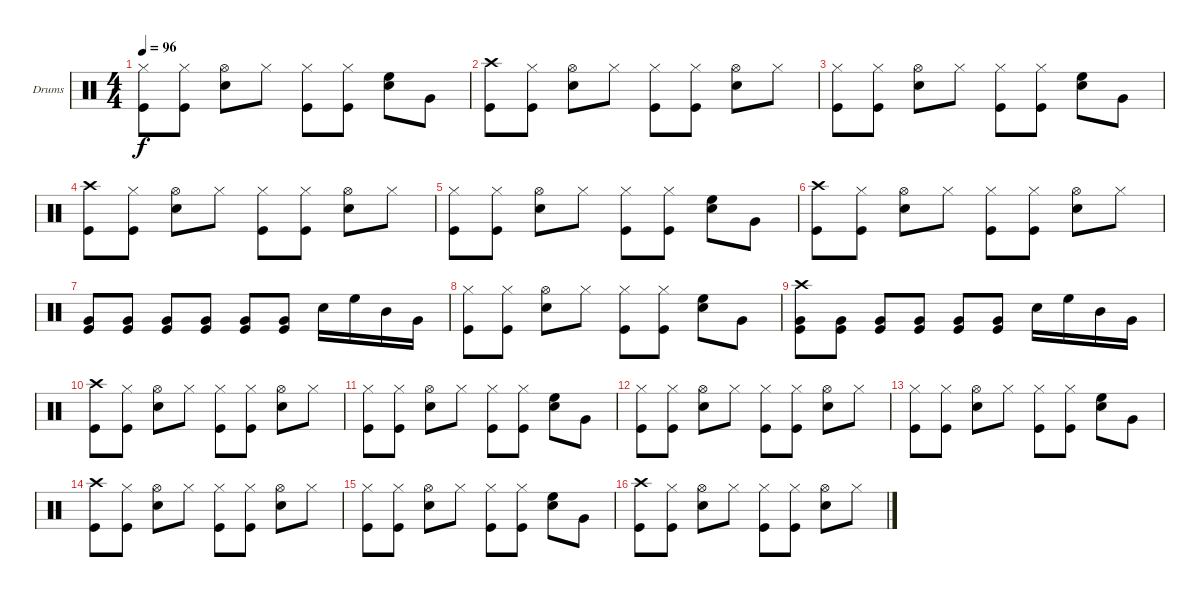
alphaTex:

\bracketExtendMode groupsimilarinstruments
\firstSystemTrackNameOrientation horizontal
\otherSystemsTrackNameOrientation horizontal
\track ("Drumkit" "Drums") {instrument percussion}
\staff {score}
\articulation defaults
\ts (4 4)
\tempo 96
\clef neutral
\ks c
("Hi-Hat (closed)" "Kick (hit)").8{dy f} ("Hi-Hat (closed)" "Kick (hit)").8 ("Hi-Hat (open)" "Snare (hit) 2").8 "Hi-Hat (closed)".8 ("Hi-Hat (closed)" "Kick (hit)").8 ("Hi-Hat (closed)" "Kick (hit)").8 ("Snare (hit) 2" "High Floor Tom (hit)").8 "Very Low Tom (hit)".8 |
("Crash high (hit)" "Kick (hit)").8 ("Hi-Hat (closed)" "Kick (hit)").8 ("Hi-Hat (open)" "Snare (hit) 2").8 "Hi-Hat (closed)".8 ("Hi-Hat (closed)" "Kick (hit)").8 ("Hi-Hat (closed)" "Kick (hit)").8 ("Hi-Hat (open)" "Snare (hit) 2").8 "Hi-Hat (closed)".8 |
("Hi-Hat (closed)" "Kick (hit)").8 ("Hi-Hat (closed)" "Kick (hit)").8 ("Hi-Hat (open)" "Snare (hit) 2").8 "Hi-Hat (closed)".8 ("Hi-Hat (closed)" "Kick (hit)").8 ("Hi-Hat (closed)" "Kick (hit)").8 ("Snare (hit) 2" "High Floor Tom (hit)").8 "Very Low Tom (hit)".8 |
("Crash high (hit)" "Kick (hit)").8 ("Hi-Hat (closed)" "Kick (hit)").8 ("Hi-Hat (open)" "Snare (hit) 2").8 "Hi-Hat (closed)".8 ("Hi-Hat (closed)" "Kick (hit)").8 ("Hi-Hat (closed)" "Kick (hit)").8 ("Hi-Hat (open)" "Snare (hit) 2").8 "Hi-Hat (closed)".8 |
("Hi-Hat (closed)" "Kick (hit)").8 ("Hi-Hat (closed)" "Kick (hit)").8 ("Hi-Hat (open)" "Snare (hit) 2").8 "Hi-Hat (closed)".8 ("Hi-Hat (closed)" "Kick (hit)").8 ("Hi-Hat (closed)" "Kick (hit)").8 ("Snare (hit) 2" "High Floor Tom (hit)").8 "Very Low Tom (hit)".8 |
("Crash high (hit)" "Kick (hit)").8 ("Hi-Hat (closed)" "Kick (hit)").8 ("Hi-Hat (open)" "Snare (hit) 2").8 "Hi-Hat (closed)".8 ("Hi-Hat (closed)" "Kick (hit)").8 ("Hi-Hat (closed)" "Kick (hit)").8 ("Hi-Hat (open)" "Snare (hit) 2").8 "Hi-Hat (closed)".8 |
("Kick (hit)" "Very Low Tom (hit)").8 ("Kick (hit)" "Very Low Tom (hit)").8 ("Kick (hit)" "Very Low Tom (hit)").8 ("Kick (hit)" "Very Low Tom (hit)").8 ("Kick (hit)" "Very Low Tom (hit)").8 ("Kick (hit)" "Very Low Tom (hit)").8 "Snare (hit) 2".16 "High Floor Tom (hit)".16 "Mid Tom (hit)".16 "Very Low Tom (hit)".16 |
("Hi-Hat (closed)" "Kick (hit)").8 ("Hi-Hat (closed)" "Kick (hit)").8 ("Hi-Hat (open)" "Snare (hit) 2").8 "Hi-Hat (closed)".8 ("Hi-Hat (closed)" "Kick (hit)").8 ("Hi-Hat (closed)" "Kick (hit)").8 ("Snare (hit) 2" "High Floor Tom (hit)").8 "Very Low Tom (hit)".8 |
("Crash high (hit)" "Kick (hit)" "Very Low Tom (hit)").8 ("Kick (hit)" "Very Low Tom (hit)").8 ("Kick (hit)" "Very Low Tom (hit)").8 ("Kick (hit)" "Very Low Tom (hit)").8 ("Kick (hit)" "Very Low Tom (hit)").8 ("Kick (hit)" "Very Low Tom (hit)").8 "Snare (hit) 2".16 "High Floor Tom (hit)".16 "Mid Tom (hit)".16 "Very Low Tom (hit)".16 |
("Crash high (hit)" "Kick (hit)").8 ("Hi-Hat (closed)" "Kick (hit)").8 ("Hi-Hat (open)" "Snare (hit) 2").8 "Hi-Hat (closed)".8 ("Hi-Hat (closed)" "Kick (hit)").8 ("Hi-Hat (closed)" "Kick (hit)").8 ("Hi-Hat (open)" "Snare (hit) 2").8 "Hi-Hat (closed)".8 |
("Hi-Hat (closed)" "Kick (hit)").8 ("Hi-Hat (closed)" "Kick (hit)").8 ("Hi-Hat (open)" "Snare (hit) 2").8 "Hi-Hat (closed)".8 ("Hi-Hat (closed)" "Kick (hit)").8 ("Hi-Hat (closed)" "Kick (hit)").8 ("Snare (hit) 2" "High Floor Tom (hit)").8 "Very Low Tom (hit)".8 |
("Hi-Hat (closed)" "Kick (hit)").8 ("Hi-Hat (closed)" "Kick (hit)").8 ("Hi-Hat (open)" "Snare (hit) 2").8 "Hi-Hat (closed)".8 ("Hi-Hat (closed)" "Kick (hit)").8 ("Hi-Hat (closed)" "Kick (hit)").8 ("Hi-Hat (open)" "Snare (hit) 2").8 "Hi-Hat (closed)".8 |
("Hi-Hat (closed)" "Kick (hit)").8 ("Hi-Hat (closed)" "Kick (hit)").8 ("Hi-Hat (open)" "Snare (hit) 2").8 "Hi-Hat (closed)".8 ("Hi-Hat (closed)" "Kick (hit)").8 ("Hi-Hat (closed)" "Kick (hit)").8 ("Snare (hit) 2" "High Floor Tom (hit)").8 "Very Low Tom (hit)".8 |
("Crash high (hit)" "Kick (hit)").8 ("Hi-Hat (closed)" "Kick (hit)").8 ("Hi-Hat (open)" "Snare (hit) 2").8 "Hi-Hat (closed)".8 ("Hi-Hat (closed)" "Kick (hit)").8 ("Hi-Hat (closed)" "Kick (hit)").8 ("Hi-Hat (open)" "Snare (hit) 2").8 "Hi-Hat (closed)".8 |
("Hi-Hat (closed)" "Kick (hit)").8 ("Hi-Hat (closed)" "Kick (hit)").8 ("Hi-Hat (open)" "Snare (hit) 2").8 "Hi-Hat (closed)".8 ("Hi-Hat (closed)" "Kick (hit)").8 ("Hi-Hat (closed)" "Kick (hit)").8 ("Snare (hit) 2" "High Floor Tom (hit)").8 "Very Low Tom (hit)".8 |
("Crash high (hit)" "Kick (hit)").8 ("Hi-Hat (closed)" "Kick (hit)").8 ("Hi-Hat (open)" "Snare (hit) 2").8 "Hi-Hat (closed)".8 ("Hi-Hat (closed)" "Kick (hit)").8 ("Hi-Hat (closed)" "Kick (hit)").8 ("Hi-Hat (open)" "Snare (hit) 2").8 "Hi-Hat (closed)".8
